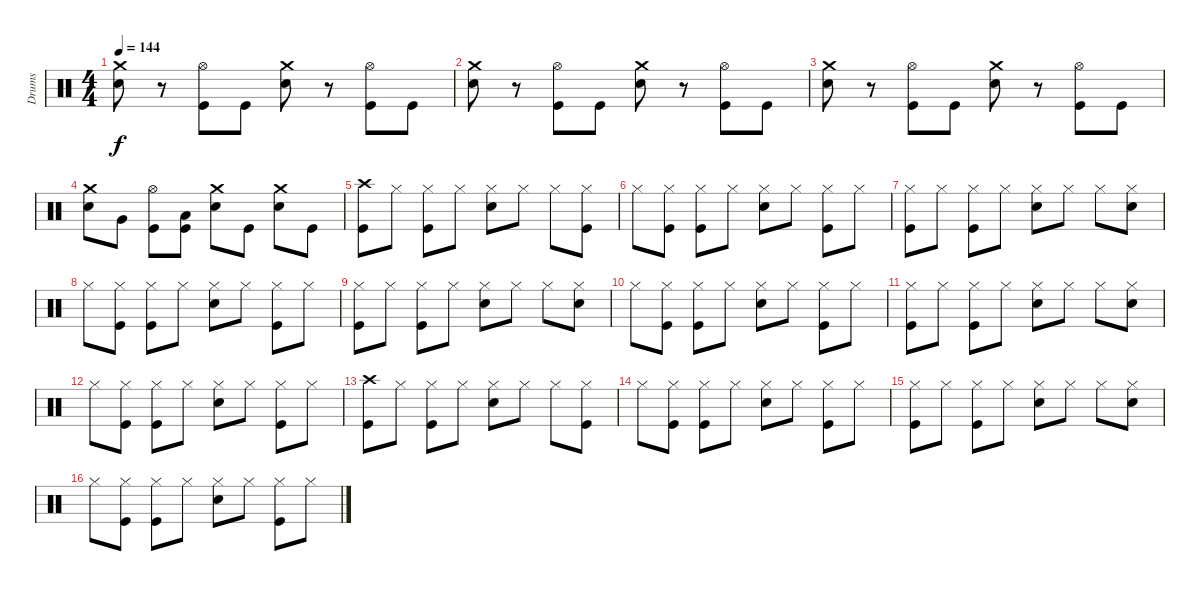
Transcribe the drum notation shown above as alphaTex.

\track ("Drums" "Drums") {instrument percussion}
\staff {score}
\articulation defaults
\ts (4 4)
\tempo 144
\clef neutral
\ks c
("Crash medium (hit)" "Snare (hit) 2").8{dy f} r.8 ("Hi-Hat (open)" "Kick (hit)").8 "Kick (hit)".8 ("Crash medium (hit)" "Snare (hit) 2").8 r.8 ("Hi-Hat (open)" "Kick (hit)").8 "Kick (hit)".8 |
("Crash medium (hit)" "Snare (hit) 2").8 r.8 ("Hi-Hat (open)" "Kick (hit)").8 "Kick (hit)".8 ("Crash medium (hit)" "Snare (hit) 2").8 r.8 ("Hi-Hat (open)" "Kick (hit)").8 "Kick (hit)".8 |
("Crash medium (hit)" "Snare (hit) 2").8 r.8 ("Hi-Hat (open)" "Kick (hit)").8 "Kick (hit)".8 ("Crash medium (hit)" "Snare (hit) 2").8 r.8 ("Hi-Hat (open)" "Kick (hit)").8 "Kick (hit)".8 |
("Crash medium (hit)" "Snare (hit) 2").8 "Very Low Tom (hit)".8 ("Hi-Hat (open)" "Kick (hit)").8 ("Low Floor Tom (hit)" "Kick (hit)").8 ("Crash medium (hit)" "Snare (hit) 2").8 "Kick (hit)".8 ("Crash medium (hit)" "Snare (hit) 2").8 "Kick (hit)".8 |
("Crash high (hit)" "Kick (hit)").8 "Hi-Hat (closed)".8 ("Hi-Hat (closed)" "Kick (hit)").8 "Hi-Hat (closed)".8 ("Hi-Hat (closed)" "Snare (hit) 2").8 "Hi-Hat (closed)".8 "Hi-Hat (closed)".8 ("Hi-Hat (closed)" "Kick (hit)").8 |
"Hi-Hat (closed)".8 ("Hi-Hat (closed)" "Kick (hit)").8 ("Hi-Hat (closed)" "Kick (hit)").8 "Hi-Hat (closed)".8 ("Hi-Hat (closed)" "Snare (hit) 2").8 "Hi-Hat (closed)".8 ("Hi-Hat (closed)" "Kick (hit)").8 "Hi-Hat (closed)".8 |
("Hi-Hat (closed)" "Kick (hit)").8 "Hi-Hat (closed)".8 ("Hi-Hat (closed)" "Kick (hit)").8 "Hi-Hat (closed)".8 ("Hi-Hat (closed)" "Snare (hit) 2").8 "Hi-Hat (closed)".8 "Hi-Hat (closed)".8 ("Hi-Hat (closed)" "Snare (hit) 2").8 |
"Hi-Hat (closed)".8 ("Hi-Hat (closed)" "Kick (hit)").8 ("Hi-Hat (closed)" "Kick (hit)").8 "Hi-Hat (closed)".8 ("Hi-Hat (closed)" "Snare (hit) 2").8 "Hi-Hat (closed)".8 ("Hi-Hat (closed)" "Kick (hit)").8 "Hi-Hat (closed)".8 |
("Hi-Hat (closed)" "Kick (hit)").8 "Hi-Hat (closed)".8 ("Hi-Hat (closed)" "Kick (hit)").8 "Hi-Hat (closed)".8 ("Hi-Hat (closed)" "Snare (hit) 2").8 "Hi-Hat (closed)".8 "Hi-Hat (closed)".8 ("Hi-Hat (closed)" "Snare (hit) 2").8 |
"Hi-Hat (closed)".8 ("Hi-Hat (closed)" "Kick (hit)").8 ("Hi-Hat (closed)" "Kick (hit)").8 "Hi-Hat (closed)".8 ("Hi-Hat (closed)" "Snare (hit) 2").8 "Hi-Hat (closed)".8 ("Hi-Hat (closed)" "Kick (hit)").8 "Hi-Hat (closed)".8 |
("Hi-Hat (closed)" "Kick (hit)").8 "Hi-Hat (closed)".8 ("Hi-Hat (closed)" "Kick (hit)").8 "Hi-Hat (closed)".8 ("Hi-Hat (closed)" "Snare (hit) 2").8 "Hi-Hat (closed)".8 "Hi-Hat (closed)".8 ("Hi-Hat (closed)" "Snare (hit) 2").8 |
"Hi-Hat (closed)".8 ("Hi-Hat (closed)" "Kick (hit)").8 ("Hi-Hat (closed)" "Kick (hit)").8 "Hi-Hat (closed)".8 ("Hi-Hat (closed)" "Snare (hit) 2").8 "Hi-Hat (closed)".8 ("Hi-Hat (closed)" "Kick (hit)").8 "Hi-Hat (closed)".8 |
("Crash high (hit)" "Kick (hit)").8 "Hi-Hat (closed)".8 ("Hi-Hat (closed)" "Kick (hit)").8 "Hi-Hat (closed)".8 ("Hi-Hat (closed)" "Snare (hit) 2").8 "Hi-Hat (closed)".8 "Hi-Hat (closed)".8 ("Hi-Hat (closed)" "Kick (hit)").8 |
"Hi-Hat (closed)".8 ("Hi-Hat (closed)" "Kick (hit)").8 ("Hi-Hat (closed)" "Kick (hit)").8 "Hi-Hat (closed)".8 ("Hi-Hat (closed)" "Snare (hit) 2").8 "Hi-Hat (closed)".8 ("Hi-Hat (closed)" "Kick (hit)").8 "Hi-Hat (closed)".8 |
("Hi-Hat (closed)" "Kick (hit)").8 "Hi-Hat (closed)".8 ("Hi-Hat (closed)" "Kick (hit)").8 "Hi-Hat (closed)".8 ("Hi-Hat (closed)" "Snare (hit) 2").8 "Hi-Hat (closed)".8 "Hi-Hat (closed)".8 ("Hi-Hat (closed)" "Snare (hit) 2").8 |
"Hi-Hat (closed)".8 ("Hi-Hat (closed)" "Kick (hit)").8 ("Hi-Hat (closed)" "Kick (hit)").8 "Hi-Hat (closed)".8 ("Hi-Hat (closed)" "Snare (hit) 2").8 "Hi-Hat (closed)".8 ("Hi-Hat (closed)" "Kick (hit)").8 "Hi-Hat (closed)".8
